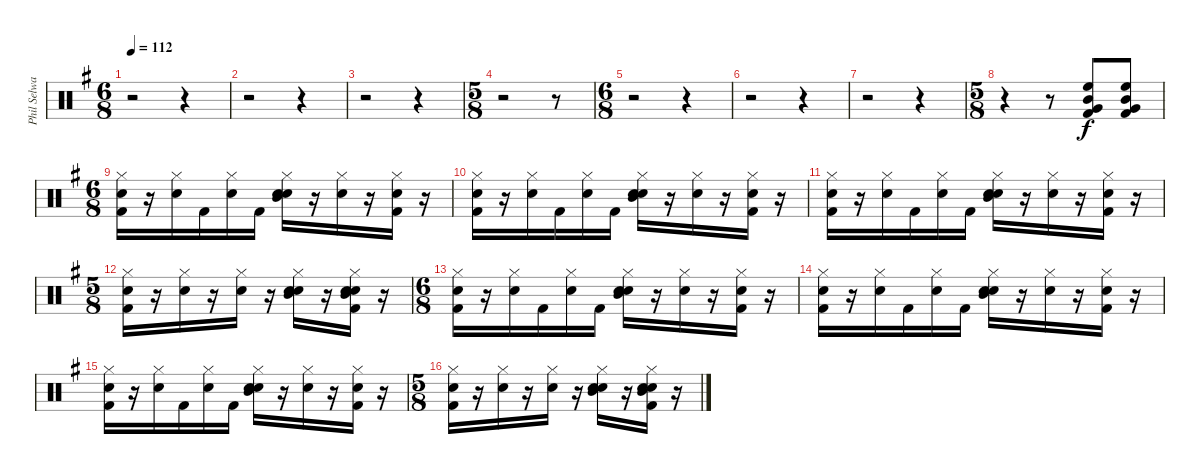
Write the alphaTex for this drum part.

\track ("Phil Selway" "Phil Selwa") {instrument percussion}
\staff {score}
\articulation defaults
\ts (6 8)
\tempo 112
\clef neutral
\ks g
r.2{dy f} r.4 |
r.2 r.4 |
r.2 r.4 |
\ts (5 8)
r.2 r.8 |
\ts (6 8)
r.2 r.4 |
r.2 r.4 |
r.2 r.4 |
\ts (5 8)
r.4 r.8 ("Mid Tom (hit)" "High Floor Tom (hit)" "Kick (hit) 2" "Very Low Tom (hit)").8 ("Mid Tom (hit)" "High Floor Tom (hit)" "Kick (hit) 2" "Very Low Tom (hit)").8 |
\ts (6 8)
("Hi-Hat (closed)" "Kick (hit) 2" "Snare (hit) 2").16 r.16 ("Hi-Hat (closed)" "Snare (hit) 2").16 "Kick (hit) 2".16 ("Hi-Hat (closed)" "Snare (hit) 2").16 "Kick (hit) 2".16 ("Hi-Hat (closed)" "Snare (hit) 2" "Mid Tom (hit)" "Electric Snare (hit)").16 r.16 ("Hi-Hat (closed)" "Snare (hit) 2").16 r.16 ("Hi-Hat (closed)" "Snare (hit) 2" "Kick (hit) 2").16 r.16 |
("Hi-Hat (closed)" "Kick (hit) 2" "Snare (hit) 2").16 r.16 ("Hi-Hat (closed)" "Snare (hit) 2").16 "Kick (hit) 2".16 ("Hi-Hat (closed)" "Snare (hit) 2").16 "Kick (hit) 2".16 ("Hi-Hat (closed)" "Snare (hit) 2" "Mid Tom (hit)" "Electric Snare (hit)").16 r.16 ("Hi-Hat (closed)" "Snare (hit) 2").16 r.16 ("Hi-Hat (closed)" "Snare (hit) 2" "Kick (hit) 2").16 r.16 |
("Hi-Hat (closed)" "Kick (hit) 2" "Snare (hit) 2").16 r.16 ("Hi-Hat (closed)" "Snare (hit) 2").16 "Kick (hit) 2".16 ("Hi-Hat (closed)" "Snare (hit) 2").16 "Kick (hit) 2".16 ("Hi-Hat (closed)" "Snare (hit) 2" "Mid Tom (hit)" "Electric Snare (hit)").16 r.16 ("Hi-Hat (closed)" "Snare (hit) 2").16 r.16 ("Hi-Hat (closed)" "Snare (hit) 2" "Kick (hit) 2").16 r.16 |
\ts (5 8)
("Hi-Hat (closed)" "Snare (hit) 2" "Kick (hit) 2").16 r.16 ("Hi-Hat (closed)" "Snare (hit) 2").16 r.16 ("Hi-Hat (closed)" "Snare (hit) 2").16 r.16 ("Hi-Hat (closed)" "Snare (hit) 2" "Mid Tom (hit)" "Electric Snare (hit)").16 r.16 ("Hi-Hat (closed)" "Snare (hit) 2" "Kick (hit) 2" "Mid Tom (hit)" "Electric Snare (hit)").16 r.16 |
\ts (6 8)
("Hi-Hat (closed)" "Kick (hit) 2" "Snare (hit) 2").16 r.16 ("Hi-Hat (closed)" "Snare (hit) 2").16 "Kick (hit) 2".16 ("Hi-Hat (closed)" "Snare (hit) 2").16 "Kick (hit) 2".16 ("Hi-Hat (closed)" "Snare (hit) 2" "Mid Tom (hit)" "Electric Snare (hit)").16 r.16 ("Hi-Hat (closed)" "Snare (hit) 2").16 r.16 ("Hi-Hat (closed)" "Snare (hit) 2" "Kick (hit) 2").16 r.16 |
("Hi-Hat (closed)" "Kick (hit) 2" "Snare (hit) 2").16 r.16 ("Hi-Hat (closed)" "Snare (hit) 2").16 "Kick (hit) 2".16 ("Hi-Hat (closed)" "Snare (hit) 2").16 "Kick (hit) 2".16 ("Hi-Hat (closed)" "Snare (hit) 2" "Mid Tom (hit)" "Electric Snare (hit)").16 r.16 ("Hi-Hat (closed)" "Snare (hit) 2").16 r.16 ("Hi-Hat (closed)" "Snare (hit) 2" "Kick (hit) 2").16 r.16 |
("Hi-Hat (closed)" "Kick (hit) 2" "Snare (hit) 2").16 r.16 ("Hi-Hat (closed)" "Snare (hit) 2").16 "Kick (hit) 2".16 ("Hi-Hat (closed)" "Snare (hit) 2").16 "Kick (hit) 2".16 ("Hi-Hat (closed)" "Snare (hit) 2" "Mid Tom (hit)" "Electric Snare (hit)").16 r.16 ("Hi-Hat (closed)" "Snare (hit) 2").16 r.16 ("Hi-Hat (closed)" "Snare (hit) 2" "Kick (hit) 2").16 r.16 |
\ts (5 8)
("Hi-Hat (closed)" "Snare (hit) 2" "Kick (hit) 2").16 r.16 ("Hi-Hat (closed)" "Snare (hit) 2").16 r.16 ("Hi-Hat (closed)" "Snare (hit) 2").16 r.16 ("Hi-Hat (closed)" "Snare (hit) 2" "Mid Tom (hit)" "Electric Snare (hit)").16 r.16 ("Hi-Hat (closed)" "Snare (hit) 2" "Kick (hit) 2" "Mid Tom (hit)" "Electric Snare (hit)").16 r.16
